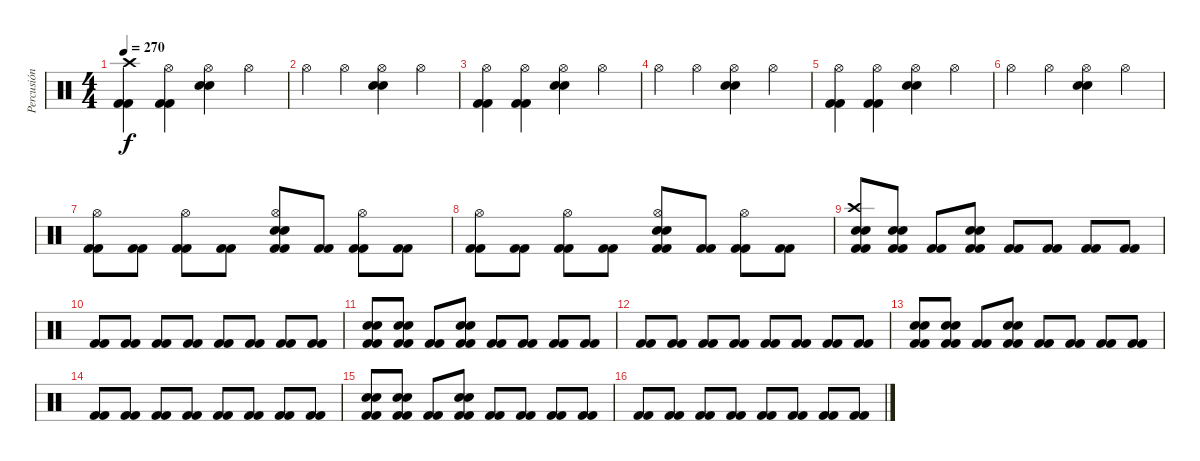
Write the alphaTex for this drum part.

\track ("Percusión" "Percusión") {instrument percussion}
\staff {score}
\articulation defaults
\ts (4 4)
\tempo 270
\clef neutral
\ks c
("Kick (hit) 2" "Kick (hit) 2" "Crash high (hit)").4{dy f} ("Kick (hit) 2" "Kick (hit) 2" "Hi-Hat (open)").4 ("Electric Snare (hit)" "Electric Snare (hit)" "Hi-Hat (open)").4 "Hi-Hat (open)".4 |
"Hi-Hat (open)".4 "Hi-Hat (open)".4 ("Electric Snare (hit)" "Electric Snare (hit)" "Hi-Hat (open)").4 "Hi-Hat (open)".4 |
("Kick (hit) 2" "Kick (hit) 2" "Hi-Hat (open)").4 ("Kick (hit) 2" "Kick (hit) 2" "Hi-Hat (open)").4 ("Electric Snare (hit)" "Electric Snare (hit)" "Hi-Hat (open)").4 "Hi-Hat (open)".4 |
"Hi-Hat (open)".4 "Hi-Hat (open)".4 ("Electric Snare (hit)" "Electric Snare (hit)" "Hi-Hat (open)").4 "Hi-Hat (open)".4 |
("Kick (hit) 2" "Kick (hit) 2" "Hi-Hat (open)").4 ("Kick (hit) 2" "Kick (hit) 2" "Hi-Hat (open)").4 ("Electric Snare (hit)" "Electric Snare (hit)" "Hi-Hat (open)").4 "Hi-Hat (open)".4 |
"Hi-Hat (open)".4 "Hi-Hat (open)".4 ("Electric Snare (hit)" "Electric Snare (hit)" "Hi-Hat (open)").4 "Hi-Hat (open)".4 |
("Kick (hit) 2" "Kick (hit) 2" "Hi-Hat (open)").8 ("Kick (hit) 2" "Kick (hit) 2").8 ("Kick (hit) 2" "Kick (hit) 2" "Hi-Hat (open)").8 ("Kick (hit) 2" "Kick (hit) 2").8 ("Kick (hit) 2" "Kick (hit) 2" "Electric Snare (hit)" "Electric Snare (hit)" "Hi-Hat (open)").8 ("Kick (hit) 2" "Kick (hit) 2").8 ("Kick (hit) 2" "Kick (hit) 2" "Hi-Hat (open)").8 ("Kick (hit) 2" "Kick (hit) 2").8 |
("Kick (hit) 2" "Kick (hit) 2" "Hi-Hat (open)").8 ("Kick (hit) 2" "Kick (hit) 2").8 ("Kick (hit) 2" "Kick (hit) 2" "Hi-Hat (open)").8 ("Kick (hit) 2" "Kick (hit) 2").8 ("Kick (hit) 2" "Kick (hit) 2" "Electric Snare (hit)" "Electric Snare (hit)" "Hi-Hat (open)").8 ("Kick (hit) 2" "Kick (hit) 2").8 ("Kick (hit) 2" "Kick (hit) 2" "Hi-Hat (open)").8 ("Kick (hit) 2" "Kick (hit) 2").8 |
("Kick (hit) 2" "Kick (hit) 2" "Electric Snare (hit)" "Electric Snare (hit)" "Crash high (hit)").8 ("Kick (hit) 2" "Kick (hit) 2" "Electric Snare (hit)" "Electric Snare (hit)").8 ("Kick (hit) 2" "Kick (hit) 2").8 ("Kick (hit) 2" "Kick (hit) 2" "Electric Snare (hit)" "Electric Snare (hit)").8 ("Kick (hit) 2" "Kick (hit) 2").8 ("Kick (hit) 2" "Kick (hit) 2").8 ("Kick (hit) 2" "Kick (hit) 2").8 ("Kick (hit) 2" "Kick (hit) 2").8 |
("Kick (hit) 2" "Kick (hit) 2").8 ("Kick (hit) 2" "Kick (hit) 2").8 ("Kick (hit) 2" "Kick (hit) 2").8 ("Kick (hit) 2" "Kick (hit) 2").8 ("Kick (hit) 2" "Kick (hit) 2").8 ("Kick (hit) 2" "Kick (hit) 2").8 ("Kick (hit) 2" "Kick (hit) 2").8 ("Kick (hit) 2" "Kick (hit) 2").8 |
("Kick (hit) 2" "Kick (hit) 2" "Electric Snare (hit)" "Electric Snare (hit)").8 ("Kick (hit) 2" "Kick (hit) 2" "Electric Snare (hit)" "Electric Snare (hit)").8 ("Kick (hit) 2" "Kick (hit) 2").8 ("Kick (hit) 2" "Kick (hit) 2" "Electric Snare (hit)" "Electric Snare (hit)").8 ("Kick (hit) 2" "Kick (hit) 2").8 ("Kick (hit) 2" "Kick (hit) 2").8 ("Kick (hit) 2" "Kick (hit) 2").8 ("Kick (hit) 2" "Kick (hit) 2").8 |
("Kick (hit) 2" "Kick (hit) 2").8 ("Kick (hit) 2" "Kick (hit) 2").8 ("Kick (hit) 2" "Kick (hit) 2").8 ("Kick (hit) 2" "Kick (hit) 2").8 ("Kick (hit) 2" "Kick (hit) 2").8 ("Kick (hit) 2" "Kick (hit) 2").8 ("Kick (hit) 2" "Kick (hit) 2").8 ("Kick (hit) 2" "Kick (hit) 2").8 |
("Kick (hit) 2" "Kick (hit) 2" "Electric Snare (hit)" "Electric Snare (hit)").8 ("Kick (hit) 2" "Kick (hit) 2" "Electric Snare (hit)" "Electric Snare (hit)").8 ("Kick (hit) 2" "Kick (hit) 2").8 ("Kick (hit) 2" "Kick (hit) 2" "Electric Snare (hit)" "Electric Snare (hit)").8 ("Kick (hit) 2" "Kick (hit) 2").8 ("Kick (hit) 2" "Kick (hit) 2").8 ("Kick (hit) 2" "Kick (hit) 2").8 ("Kick (hit) 2" "Kick (hit) 2").8 |
("Kick (hit) 2" "Kick (hit) 2").8 ("Kick (hit) 2" "Kick (hit) 2").8 ("Kick (hit) 2" "Kick (hit) 2").8 ("Kick (hit) 2" "Kick (hit) 2").8 ("Kick (hit) 2" "Kick (hit) 2").8 ("Kick (hit) 2" "Kick (hit) 2").8 ("Kick (hit) 2" "Kick (hit) 2").8 ("Kick (hit) 2" "Kick (hit) 2").8 |
("Kick (hit) 2" "Kick (hit) 2" "Electric Snare (hit)" "Electric Snare (hit)").8 ("Kick (hit) 2" "Kick (hit) 2" "Electric Snare (hit)" "Electric Snare (hit)").8 ("Kick (hit) 2" "Kick (hit) 2").8 ("Kick (hit) 2" "Kick (hit) 2" "Electric Snare (hit)" "Electric Snare (hit)").8 ("Kick (hit) 2" "Kick (hit) 2").8 ("Kick (hit) 2" "Kick (hit) 2").8 ("Kick (hit) 2" "Kick (hit) 2").8 ("Kick (hit) 2" "Kick (hit) 2").8 |
("Kick (hit) 2" "Kick (hit) 2").8 ("Kick (hit) 2" "Kick (hit) 2").8 ("Kick (hit) 2" "Kick (hit) 2").8 ("Kick (hit) 2" "Kick (hit) 2").8 ("Kick (hit) 2" "Kick (hit) 2").8 ("Kick (hit) 2" "Kick (hit) 2").8 ("Kick (hit) 2" "Kick (hit) 2").8 ("Kick (hit) 2" "Kick (hit) 2").8
